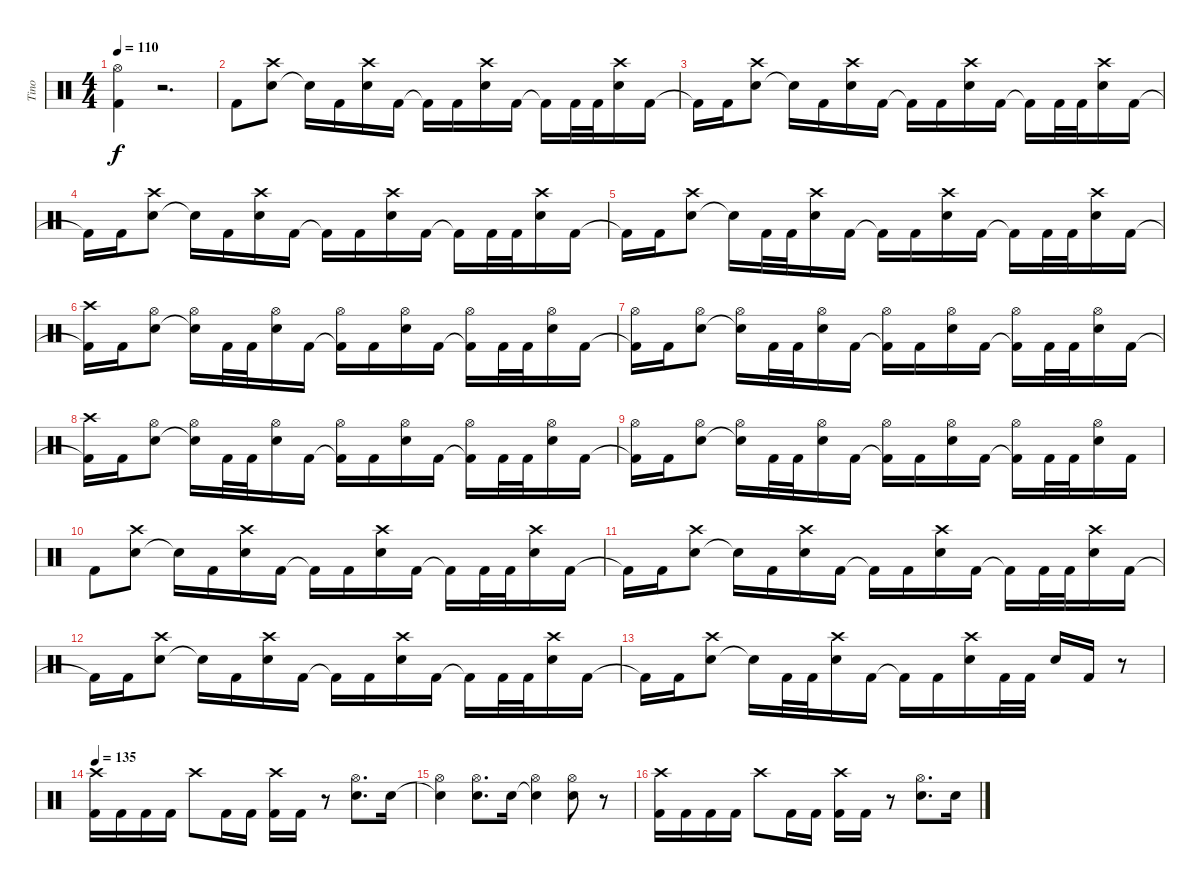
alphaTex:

\track ("Tino" "Tino") {instrument percussion}
\staff {score}
\articulation defaults
\ts (4 4)
\tempo 110
\clef neutral
\ks c
("Kick (hit) 2" "Hi-Hat (open)").4{dy f} r.2{d} |
"Kick (hit) 2".8 ("Electric Snare (hit)" "Crash high (hit)").8 "Electric Snare (hit)"{t}.16 "Kick (hit) 2".16 ("Electric Snare (hit)" "Crash high (hit)").16 "Kick (hit) 2".16 "Kick (hit) 2"{t}.16 "Kick (hit) 2".16 ("Electric Snare (hit)" "Crash high (hit)").16 "Kick (hit) 2".16 "Kick (hit) 2"{t}.16 "Kick (hit) 2".32 "Kick (hit) 2".32 ("Electric Snare (hit)" "Crash high (hit)").16 "Kick (hit) 2".16 |
"Kick (hit) 2"{t}.16 "Kick (hit) 2".16 ("Electric Snare (hit)" "Crash high (hit)").8 "Electric Snare (hit)"{t}.16 "Kick (hit) 2".16 ("Electric Snare (hit)" "Crash high (hit)").16 "Kick (hit) 2".16 "Kick (hit) 2"{t}.16 "Kick (hit) 2".16 ("Electric Snare (hit)" "Crash high (hit)").16 "Kick (hit) 2".16 "Kick (hit) 2"{t}.16 "Kick (hit) 2".32 "Kick (hit) 2".32 ("Electric Snare (hit)" "Crash high (hit)").16 "Kick (hit) 2".16 |
"Kick (hit) 2"{t}.16 "Kick (hit) 2".16 ("Electric Snare (hit)" "Crash high (hit)").8 "Electric Snare (hit)"{t}.16 "Kick (hit) 2".16 ("Electric Snare (hit)" "Crash high (hit)").16 "Kick (hit) 2".16 "Kick (hit) 2"{t}.16 "Kick (hit) 2".16 ("Electric Snare (hit)" "Crash high (hit)").16 "Kick (hit) 2".16 "Kick (hit) 2"{t}.16 "Kick (hit) 2".32 "Kick (hit) 2".32 ("Electric Snare (hit)" "Crash high (hit)").16 "Kick (hit) 2".16 |
"Kick (hit) 2"{t}.16 "Kick (hit) 2".16 ("Electric Snare (hit)" "Crash high (hit)").8 "Electric Snare (hit)"{t}.16 "Kick (hit) 2".32 "Kick (hit) 2".32 ("Electric Snare (hit)" "Crash high (hit)").16 "Kick (hit) 2".16 "Kick (hit) 2"{t}.16 "Kick (hit) 2".16 ("Electric Snare (hit)" "Crash high (hit)").16 "Kick (hit) 2".16 "Kick (hit) 2"{t}.16 "Kick (hit) 2".32 "Kick (hit) 2".32 ("Electric Snare (hit)" "Crash high (hit)").16 "Kick (hit) 2".16 |
("Kick (hit) 2"{t} "Crash high (hit)").16 "Kick (hit) 2".16 ("Electric Snare (hit)" "Hi-Hat (open)").8 ("Electric Snare (hit)"{t} "Hi-Hat (open)").16 "Kick (hit) 2".32 "Kick (hit) 2".32 ("Electric Snare (hit)" "Hi-Hat (open)").16 "Kick (hit) 2".16 ("Kick (hit) 2"{t} "Hi-Hat (open)").16 "Kick (hit) 2".16 ("Electric Snare (hit)" "Hi-Hat (open)").16 "Kick (hit) 2".16 ("Kick (hit) 2"{t} "Hi-Hat (open)").16 "Kick (hit) 2".32 "Kick (hit) 2".32 ("Electric Snare (hit)" "Hi-Hat (open)").16 "Kick (hit) 2".16 |
("Kick (hit) 2"{t} "Hi-Hat (open)").16 "Kick (hit) 2".16 ("Electric Snare (hit)" "Hi-Hat (open)").8 ("Electric Snare (hit)"{t} "Hi-Hat (open)").16 "Kick (hit) 2".32 "Kick (hit) 2".32 ("Electric Snare (hit)" "Hi-Hat (open)").16 "Kick (hit) 2".16 ("Kick (hit) 2"{t} "Hi-Hat (open)").16 "Kick (hit) 2".16 ("Electric Snare (hit)" "Hi-Hat (open)").16 "Kick (hit) 2".16 ("Kick (hit) 2"{t} "Hi-Hat (open)").16 "Kick (hit) 2".32 "Kick (hit) 2".32 ("Electric Snare (hit)" "Hi-Hat (open)").16 "Kick (hit) 2".16 |
("Kick (hit) 2"{t} "Crash high (hit)").16 "Kick (hit) 2".16 ("Electric Snare (hit)" "Hi-Hat (open)").8 ("Electric Snare (hit)"{t} "Hi-Hat (open)").16 "Kick (hit) 2".32 "Kick (hit) 2".32 ("Electric Snare (hit)" "Hi-Hat (open)").16 "Kick (hit) 2".16 ("Kick (hit) 2"{t} "Hi-Hat (open)").16 "Kick (hit) 2".16 ("Electric Snare (hit)" "Hi-Hat (open)").16 "Kick (hit) 2".16 ("Kick (hit) 2"{t} "Hi-Hat (open)").16 "Kick (hit) 2".32 "Kick (hit) 2".32 ("Electric Snare (hit)" "Hi-Hat (open)").16 "Kick (hit) 2".16 |
("Kick (hit) 2"{t} "Hi-Hat (open)").16 "Kick (hit) 2".16 ("Electric Snare (hit)" "Hi-Hat (open)").8 ("Electric Snare (hit)"{t} "Hi-Hat (open)").16 "Kick (hit) 2".32 "Kick (hit) 2".32 ("Electric Snare (hit)" "Hi-Hat (open)").16 "Kick (hit) 2".16 ("Kick (hit) 2"{t} "Hi-Hat (open)").16 "Kick (hit) 2".16 ("Electric Snare (hit)" "Hi-Hat (open)").16 "Kick (hit) 2".16 ("Kick (hit) 2"{t} "Hi-Hat (open)").16 "Kick (hit) 2".32 "Kick (hit) 2".32 ("Electric Snare (hit)" "Hi-Hat (open)").16 "Kick (hit) 2".16 |
"Kick (hit) 2".8 ("Electric Snare (hit)" "Crash high (hit)").8 "Electric Snare (hit)"{t}.16 "Kick (hit) 2".16 ("Electric Snare (hit)" "Crash high (hit)").16 "Kick (hit) 2".16 "Kick (hit) 2"{t}.16 "Kick (hit) 2".16 ("Electric Snare (hit)" "Crash high (hit)").16 "Kick (hit) 2".16 "Kick (hit) 2"{t}.16 "Kick (hit) 2".32 "Kick (hit) 2".32 ("Electric Snare (hit)" "Crash high (hit)").16 "Kick (hit) 2".16 |
"Kick (hit) 2"{t}.16 "Kick (hit) 2".16 ("Electric Snare (hit)" "Crash high (hit)").8 "Electric Snare (hit)"{t}.16 "Kick (hit) 2".16 ("Electric Snare (hit)" "Crash high (hit)").16 "Kick (hit) 2".16 "Kick (hit) 2"{t}.16 "Kick (hit) 2".16 ("Electric Snare (hit)" "Crash high (hit)").16 "Kick (hit) 2".16 "Kick (hit) 2"{t}.16 "Kick (hit) 2".32 "Kick (hit) 2".32 ("Electric Snare (hit)" "Crash high (hit)").16 "Kick (hit) 2".16 |
"Kick (hit) 2"{t}.16 "Kick (hit) 2".16 ("Electric Snare (hit)" "Crash high (hit)").8 "Electric Snare (hit)"{t}.16 "Kick (hit) 2".16 ("Electric Snare (hit)" "Crash high (hit)").16 "Kick (hit) 2".16 "Kick (hit) 2"{t}.16 "Kick (hit) 2".16 ("Electric Snare (hit)" "Crash high (hit)").16 "Kick (hit) 2".16 "Kick (hit) 2"{t}.16 "Kick (hit) 2".32 "Kick (hit) 2".32 ("Electric Snare (hit)" "Crash high (hit)").16 "Kick (hit) 2".16 |
"Kick (hit) 2"{t}.16 "Kick (hit) 2".16 ("Electric Snare (hit)" "Crash high (hit)").8 "Electric Snare (hit)"{t}.16 "Kick (hit) 2".32 "Kick (hit) 2".32 ("Electric Snare (hit)" "Crash high (hit)").16 "Kick (hit) 2".16 "Kick (hit) 2"{t}.16 "Kick (hit) 2".16 ("Electric Snare (hit)" "Crash high (hit)").16 "Kick (hit) 2".32 "Kick (hit) 2".32 "Electric Snare (hit)".16 "Kick (hit) 2".16 r.8 |
\tempo 135
("Kick (hit) 2" "Crash high (hit)").16 "Kick (hit) 2".16 "Kick (hit) 2".16 "Kick (hit) 2".16 "Crash high (hit)".8 "Kick (hit) 2".16 "Kick (hit) 2".16 ("Kick (hit) 2" "Crash high (hit)").16 "Kick (hit) 2".16 r.8 ("Electric Snare (hit)" "Hi-Hat (open)").8{d} "Electric Snare (hit)".16 |
("Electric Snare (hit)"{t} "Hi-Hat (open)").4 ("Electric Snare (hit)" "Hi-Hat (open)").8{d} "Electric Snare (hit)".16 ("Electric Snare (hit)"{t} "Hi-Hat (open)").4 ("Electric Snare (hit)" "Hi-Hat (open)").8 r.8 |
("Kick (hit) 2" "Crash high (hit)").16 "Kick (hit) 2".16 "Kick (hit) 2".16 "Kick (hit) 2".16 "Crash high (hit)".8 "Kick (hit) 2".16 "Kick (hit) 2".16 ("Kick (hit) 2" "Crash high (hit)").16 "Kick (hit) 2".16 r.8 ("Electric Snare (hit)" "Hi-Hat (open)").8{d} "Electric Snare (hit)".16
